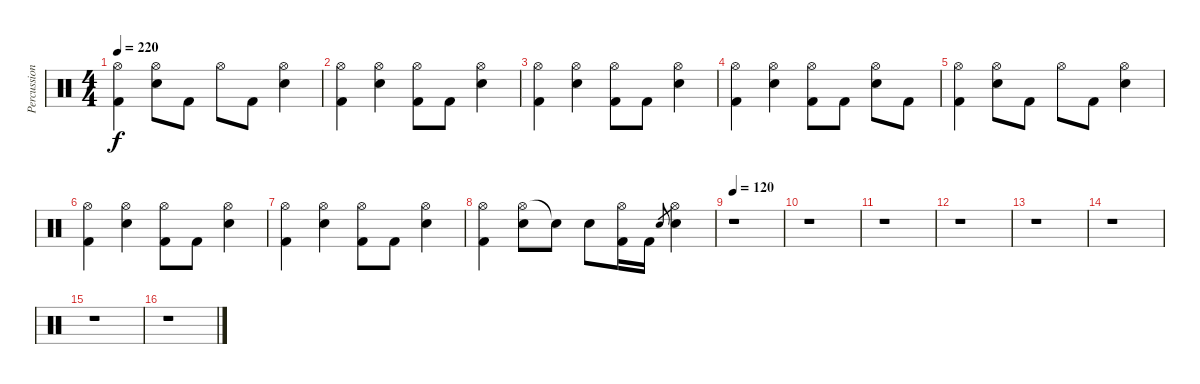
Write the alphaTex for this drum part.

\track ("Percussion" "Percussion") {instrument percussion}
\staff {score}
\articulation defaults
\ts (4 4)
\tempo 220
\clef neutral
\ks c
("Hi-Hat (open)" "Kick (hit) 2").4{dy f} ("Hi-Hat (open)" "Snare (hit) 2").8 "Kick (hit) 2".8 "Hi-Hat (open)".8 "Kick (hit) 2".8 ("Hi-Hat (open)" "Snare (hit) 2").4 |
("Hi-Hat (open)" "Kick (hit) 2").4 ("Hi-Hat (open)" "Snare (hit) 2").4 ("Hi-Hat (open)" "Kick (hit) 2").8 "Kick (hit) 2".8 ("Hi-Hat (open)" "Snare (hit) 2").4 |
("Hi-Hat (open)" "Kick (hit) 2").4 ("Hi-Hat (open)" "Snare (hit) 2").4 ("Hi-Hat (open)" "Kick (hit) 2").8 "Kick (hit) 2".8 ("Hi-Hat (open)" "Snare (hit) 2").4 |
("Hi-Hat (open)" "Kick (hit) 2").4 ("Hi-Hat (open)" "Snare (hit) 2").4 ("Hi-Hat (open)" "Kick (hit) 2").8 "Kick (hit) 2".8 ("Hi-Hat (open)" "Snare (hit) 2").8 "Kick (hit) 2".8 |
("Hi-Hat (open)" "Kick (hit) 2").4 ("Hi-Hat (open)" "Snare (hit) 2").8 "Kick (hit) 2".8 "Hi-Hat (open)".8 "Kick (hit) 2".8 ("Hi-Hat (open)" "Snare (hit) 2").4 |
("Hi-Hat (open)" "Kick (hit) 2").4 ("Hi-Hat (open)" "Snare (hit) 2").4 ("Hi-Hat (open)" "Kick (hit) 2").8 "Kick (hit) 2".8 ("Hi-Hat (open)" "Snare (hit) 2").4 |
("Hi-Hat (open)" "Kick (hit) 2").4 ("Hi-Hat (open)" "Snare (hit) 2").4 ("Hi-Hat (open)" "Kick (hit) 2").8 "Kick (hit) 2".8 ("Hi-Hat (open)" "Snare (hit) 2").4 |
("Hi-Hat (open)" "Kick (hit) 2").4 ("Hi-Hat (open)" "Snare (hit) 2").8 "Snare (hit)"{t}.8 "Snare (hit) 2".8 ("Hi-Hat (open)" "Kick (hit) 2").16 "Kick (hit) 2".16 "Snare (hit) 2".8{gr} ("Hi-Hat (open)" "Snare (hit) 2").4 |
\tempo 120
r.1 |
r.1 |
r.1 |
r.1 |
r.1 |
r.1 |
r.1 |
r.1
